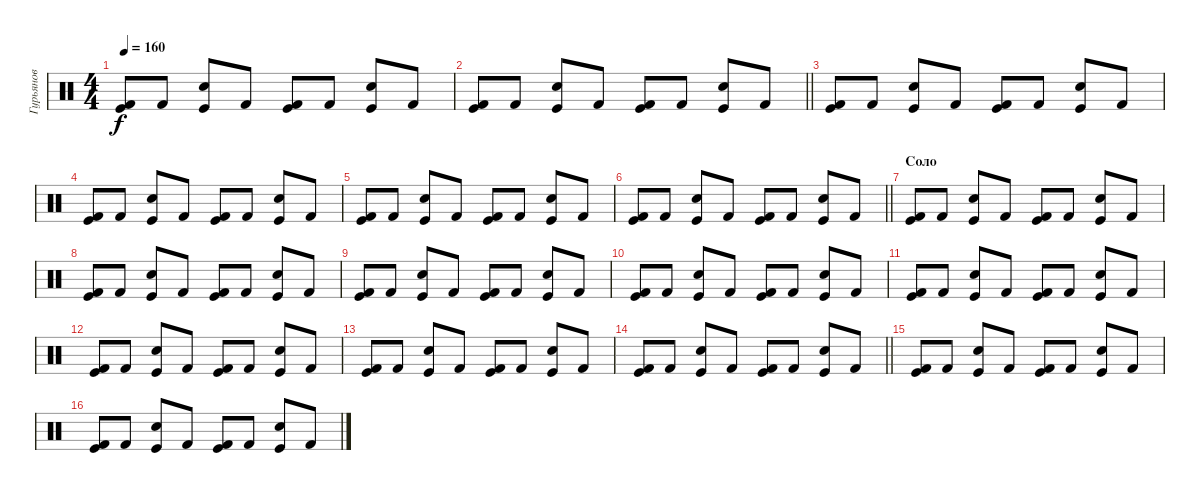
\track ("Гурьянов" "Гурьянов") {instrument percussion}
\staff {score}
\articulation defaults
\ts (4 4)
\tempo 160
\clef neutral
\ks c
("Kick (hit)" "Kick (hit) 2").8{dy f} "Kick (hit) 2".8 ("Snare (hit) 2" "Kick (hit)").8 "Kick (hit) 2".8 ("Kick (hit)" "Kick (hit) 2").8 "Kick (hit) 2".8 ("Snare (hit) 2" "Kick (hit)").8 "Kick (hit) 2".8 |
\barLineRight lightlight
("Kick (hit)" "Kick (hit) 2").8 "Kick (hit) 2".8 ("Snare (hit) 2" "Kick (hit)").8 "Kick (hit) 2".8 ("Kick (hit)" "Kick (hit) 2").8 "Kick (hit) 2".8 ("Snare (hit) 2" "Kick (hit)").8 "Kick (hit) 2".8 |
("Kick (hit)" "Kick (hit) 2").8 "Kick (hit) 2".8 ("Snare (hit) 2" "Kick (hit)").8 "Kick (hit) 2".8 ("Kick (hit)" "Kick (hit) 2").8 "Kick (hit) 2".8 ("Snare (hit) 2" "Kick (hit)").8 "Kick (hit) 2".8 |
("Kick (hit)" "Kick (hit) 2").8 "Kick (hit) 2".8 ("Snare (hit) 2" "Kick (hit)").8 "Kick (hit) 2".8 ("Kick (hit)" "Kick (hit) 2").8 "Kick (hit) 2".8 ("Snare (hit) 2" "Kick (hit)").8 "Kick (hit) 2".8 |
("Kick (hit)" "Kick (hit) 2").8 "Kick (hit) 2".8 ("Snare (hit) 2" "Kick (hit)").8 "Kick (hit) 2".8 ("Kick (hit)" "Kick (hit) 2").8 "Kick (hit) 2".8 ("Snare (hit) 2" "Kick (hit)").8 "Kick (hit) 2".8 |
\barLineRight lightlight
("Kick (hit)" "Kick (hit) 2").8 "Kick (hit) 2".8 ("Snare (hit) 2" "Kick (hit)").8 "Kick (hit) 2".8 ("Kick (hit)" "Kick (hit) 2").8 "Kick (hit) 2".8 ("Snare (hit) 2" "Kick (hit)").8 "Kick (hit) 2".8 |
\section ("" "Соло")
("Kick (hit)" "Kick (hit) 2").8 "Kick (hit) 2".8 ("Snare (hit) 2" "Kick (hit)").8 "Kick (hit) 2".8 ("Kick (hit)" "Kick (hit) 2").8 "Kick (hit) 2".8 ("Snare (hit) 2" "Kick (hit)").8 "Kick (hit) 2".8 |
("Kick (hit)" "Kick (hit) 2").8 "Kick (hit) 2".8 ("Snare (hit) 2" "Kick (hit)").8 "Kick (hit) 2".8 ("Kick (hit)" "Kick (hit) 2").8 "Kick (hit) 2".8 ("Snare (hit) 2" "Kick (hit)").8 "Kick (hit) 2".8 |
("Kick (hit)" "Kick (hit) 2").8 "Kick (hit) 2".8 ("Snare (hit) 2" "Kick (hit)").8 "Kick (hit) 2".8 ("Kick (hit)" "Kick (hit) 2").8 "Kick (hit) 2".8 ("Snare (hit) 2" "Kick (hit)").8 "Kick (hit) 2".8 |
("Kick (hit)" "Kick (hit) 2").8 "Kick (hit) 2".8 ("Snare (hit) 2" "Kick (hit)").8 "Kick (hit) 2".8 ("Kick (hit)" "Kick (hit) 2").8 "Kick (hit) 2".8 ("Snare (hit) 2" "Kick (hit)").8 "Kick (hit) 2".8 |
("Kick (hit)" "Kick (hit) 2").8 "Kick (hit) 2".8 ("Snare (hit) 2" "Kick (hit)").8 "Kick (hit) 2".8 ("Kick (hit)" "Kick (hit) 2").8 "Kick (hit) 2".8 ("Snare (hit) 2" "Kick (hit)").8 "Kick (hit) 2".8 |
("Kick (hit)" "Kick (hit) 2").8 "Kick (hit) 2".8 ("Snare (hit) 2" "Kick (hit)").8 "Kick (hit) 2".8 ("Kick (hit)" "Kick (hit) 2").8 "Kick (hit) 2".8 ("Snare (hit) 2" "Kick (hit)").8 "Kick (hit) 2".8 |
("Kick (hit)" "Kick (hit) 2").8 "Kick (hit) 2".8 ("Snare (hit) 2" "Kick (hit)").8 "Kick (hit) 2".8 ("Kick (hit)" "Kick (hit) 2").8 "Kick (hit) 2".8 ("Snare (hit) 2" "Kick (hit)").8 "Kick (hit) 2".8 |
\barLineRight lightlight
("Kick (hit)" "Kick (hit) 2").8 "Kick (hit) 2".8 ("Snare (hit) 2" "Kick (hit)").8 "Kick (hit) 2".8 ("Kick (hit)" "Kick (hit) 2").8 "Kick (hit) 2".8 ("Snare (hit) 2" "Kick (hit)").8 "Kick (hit) 2".8 |
("Kick (hit)" "Kick (hit) 2").8 "Kick (hit) 2".8 ("Snare (hit) 2" "Kick (hit)").8 "Kick (hit) 2".8 ("Kick (hit)" "Kick (hit) 2").8 "Kick (hit) 2".8 ("Snare (hit) 2" "Kick (hit)").8 "Kick (hit) 2".8 |
("Kick (hit)" "Kick (hit) 2").8 "Kick (hit) 2".8 ("Snare (hit) 2" "Kick (hit)").8 "Kick (hit) 2".8 ("Kick (hit)" "Kick (hit) 2").8 "Kick (hit) 2".8 ("Snare (hit) 2" "Kick (hit)").8 "Kick (hit) 2".8
